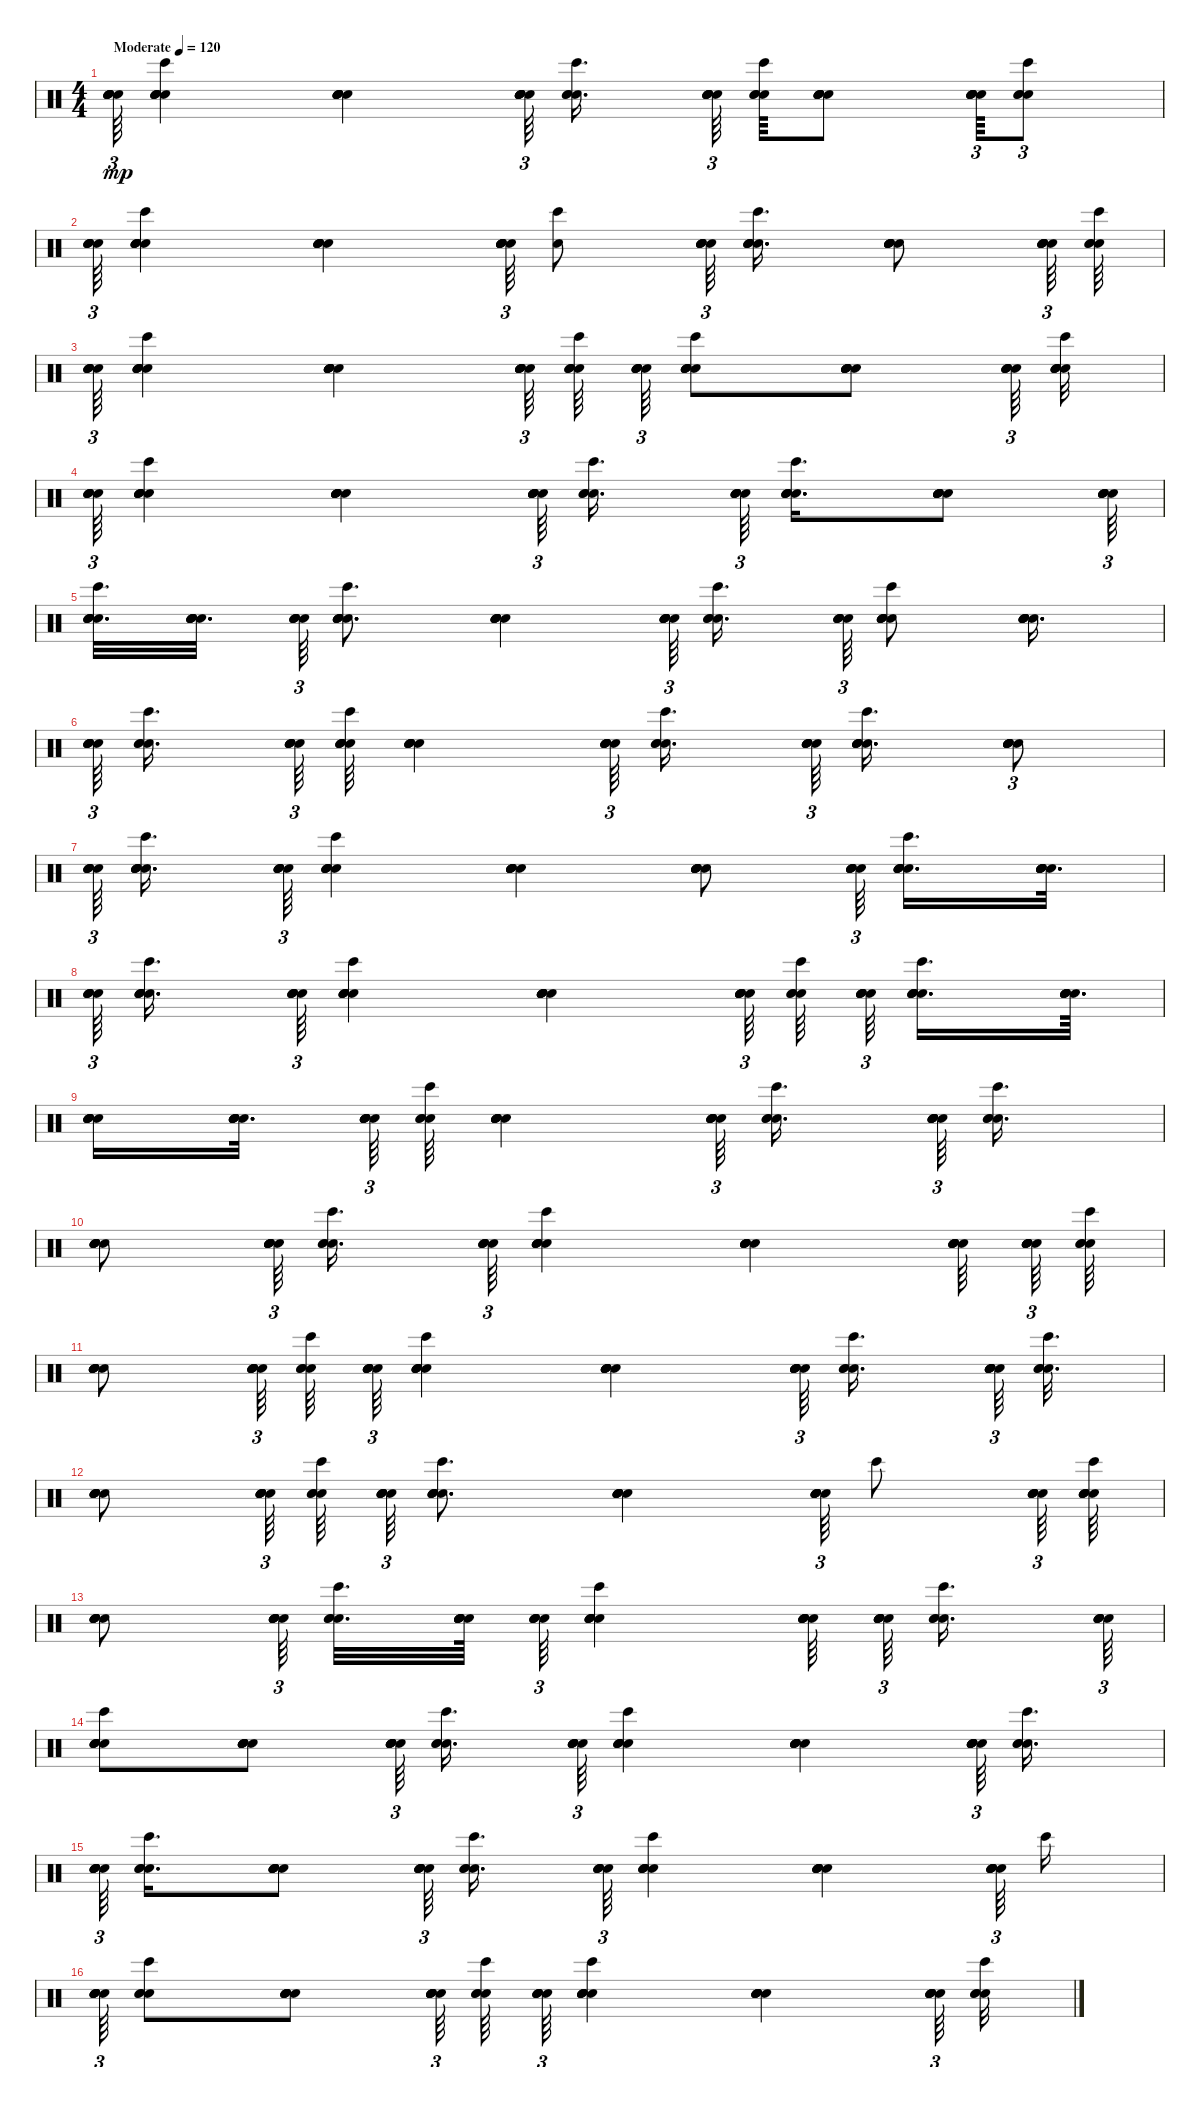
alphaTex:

\track "" {instrument percussion}
\staff {score}
\articulation defaults
\ts (4 4)
\tempo (120 "Moderate")
\clef neutral
\ks c
("Snare (hit)" "Snare (hit)" "Snare (hit)" "Snare (hit)" "Snare (hit)" "Snare (hit)").64{tu (3 2) dy mp} ("Snare (hit)" "Snare (hit)" "Snare (hit)" "Snare (hit)" "Snare (hit)" "Bongo High (hit)").4 ("Snare (hit)" "Snare (hit)" "Snare (hit)" "Snare (hit)" "Snare (hit)" "Snare (hit)").4 ("Snare (hit)" "Snare (hit)" "Snare (hit)" "Snare (hit)" "Snare (hit)" "Snare (hit)").64{tu (3 2)} ("Snare (hit)" "Bongo High (hit)" "Snare (hit)" "Snare (hit)").16{d} ("Snare (hit)" "Snare (hit)" "Snare (hit)" "Snare (hit)" "Snare (hit)" "Snare (hit)").64{tu (3 2)} ("Snare (hit)" "Snare (hit)" "Bongo High (hit)" "Snare (hit)").64 ("Snare (hit)" "Snare (hit)" "Snare (hit)" "Snare (hit)" "Snare (hit)" "Snare (hit)").8 ("Snare (hit)" "Snare (hit)" "Snare (hit)" "Snare (hit)" "Snare (hit)" "Snare (hit)").64{tu (3 2)} ("Snare (hit)" "Snare (hit)" "Snare (hit)" "Bongo High (hit)").8{tu (3 2)} |
("Snare (hit)" "Snare (hit)" "Snare (hit)" "Snare (hit)" "Snare (hit)").64{tu (3 2)} ("Snare (hit)" "Snare (hit)" "Snare (hit)" "Snare (hit)" "Snare (hit)" "Bongo High (hit)").4 ("Snare (hit)" "Snare (hit)" "Snare (hit)" "Snare (hit)" "Snare (hit)" "Snare (hit)").4 ("Snare (hit)" "Snare (hit)" "Snare (hit)" "Snare (hit)" "Snare (hit)" "Snare (hit)").64{tu (3 2)} ("Bongo High (hit)" "Snare (hit)").8 ("Snare (hit)" "Snare (hit)" "Snare (hit)" "Snare (hit)" "Snare (hit)").64{tu (3 2)} ("Snare (hit)" "Snare (hit)" "Snare (hit)" "Snare (hit)" "Bongo High (hit)" "Snare (hit)").16{d} ("Snare (hit)" "Snare (hit)" "Snare (hit)" "Snare (hit)" "Snare (hit)" "Snare (hit)").8 ("Snare (hit)" "Snare (hit)" "Snare (hit)" "Snare (hit)" "Snare (hit)" "Snare (hit)").64{tu (3 2)} ("Snare (hit)" "Snare (hit)" "Bongo High (hit)" "Snare (hit)").64 |
("Snare (hit)" "Snare (hit)" "Snare (hit)" "Snare (hit)" "Snare (hit)").64{tu (3 2)} ("Snare (hit)" "Snare (hit)" "Snare (hit)" "Snare (hit)" "Bongo High (hit)" "Snare (hit)").4 ("Snare (hit)" "Snare (hit)" "Snare (hit)" "Snare (hit)" "Snare (hit)" "Snare (hit)").4 ("Snare (hit)" "Snare (hit)" "Snare (hit)" "Snare (hit)" "Snare (hit)" "Snare (hit)").64{tu (3 2)} ("Snare (hit)" "Snare (hit)" "Snare (hit)" "Bongo High (hit)" "Snare (hit)").64 ("Snare (hit)" "Snare (hit)" "Snare (hit)" "Snare (hit)" "Snare (hit)").64{tu (3 2)} ("Snare (hit)" "Snare (hit)" "Snare (hit)" "Snare (hit)" "Bongo High (hit)" "Snare (hit)").8 ("Snare (hit)" "Snare (hit)" "Snare (hit)" "Snare (hit)" "Snare (hit)" "Snare (hit)").8 ("Snare (hit)" "Snare (hit)" "Snare (hit)" "Snare (hit)" "Snare (hit)").64{tu (3 2)} ("Snare (hit)" "Snare (hit)" "Snare (hit)" "Snare (hit)" "Snare (hit)" "Bongo High (hit)").32 |
("Snare (hit)" "Snare (hit)" "Snare (hit)" "Snare (hit)" "Snare (hit)").64{tu (3 2)} ("Snare (hit)" "Snare (hit)" "Snare (hit)" "Snare (hit)" "Bongo High (hit)" "Snare (hit)").4 ("Snare (hit)" "Snare (hit)" "Snare (hit)" "Snare (hit)" "Snare (hit)" "Snare (hit)").4 ("Snare (hit)" "Snare (hit)" "Snare (hit)" "Snare (hit)" "Snare (hit)" "Snare (hit)").64{tu (3 2)} ("Snare (hit)" "Bongo High (hit)" "Snare (hit)" "Snare (hit)").16{d} ("Snare (hit)" "Snare (hit)" "Snare (hit)" "Snare (hit)" "Snare (hit)").64{tu (3 2)} ("Snare (hit)" "Snare (hit)" "Snare (hit)" "Snare (hit)" "Snare (hit)" "Bongo High (hit)").16{d} ("Snare (hit)" "Snare (hit)" "Snare (hit)" "Snare (hit)" "Snare (hit)" "Snare (hit)").8 ("Snare (hit)" "Snare (hit)" "Snare (hit)" "Snare (hit)" "Snare (hit)").64{tu (3 2)} |
("Snare (hit)" "Snare (hit)" "Snare (hit)" "Snare (hit)" "Bongo High (hit)" "Snare (hit)").32{d} ("Snare (hit)" "Snare (hit)" "Snare (hit)" "Snare (hit)" "Snare (hit)" "Snare (hit)").32{d} ("Snare (hit)" "Snare (hit)" "Snare (hit)" "Snare (hit)" "Snare (hit)").64{tu (3 2)} ("Snare (hit)" "Snare (hit)" "Snare (hit)" "Snare (hit)" "Snare (hit)" "Bongo High (hit)").8{d} ("Snare (hit)" "Snare (hit)" "Snare (hit)" "Snare (hit)" "Snare (hit)" "Snare (hit)").4 ("Snare (hit)" "Snare (hit)" "Snare (hit)" "Snare (hit)" "Snare (hit)" "Snare (hit)").64{tu (3 2)} ("Snare (hit)" "Snare (hit)" "Snare (hit)" "Bongo High (hit)").16{d} ("Snare (hit)" "Snare (hit)" "Snare (hit)" "Snare (hit)" "Snare (hit)").64{tu (3 2)} ("Snare (hit)" "Snare (hit)" "Snare (hit)" "Snare (hit)" "Snare (hit)" "Bongo High (hit)").8 ("Snare (hit)" "Snare (hit)" "Snare (hit)" "Snare (hit)" "Snare (hit)" "Snare (hit)").16{d} |
("Snare (hit)" "Snare (hit)" "Snare (hit)" "Snare (hit)" "Snare (hit)" "Snare (hit)").64{tu (3 2)} ("Snare (hit)" "Snare (hit)" "Bongo High (hit)" "Snare (hit)").16{d} ("Snare (hit)" "Snare (hit)" "Snare (hit)" "Snare (hit)" "Snare (hit)").64{tu (3 2)} ("Snare (hit)" "Snare (hit)" "Snare (hit)" "Snare (hit)" "Bongo High (hit)" "Snare (hit)").64 ("Snare (hit)" "Snare (hit)" "Snare (hit)" "Snare (hit)" "Snare (hit)" "Snare (hit)").4 ("Snare (hit)" "Snare (hit)" "Snare (hit)" "Snare (hit)" "Snare (hit)" "Snare (hit)").64{tu (3 2)} ("Snare (hit)" "Snare (hit)" "Snare (hit)" "Bongo High (hit)").16{d} ("Snare (hit)" "Snare (hit)" "Snare (hit)" "Snare (hit)" "Snare (hit)").64{tu (3 2)} ("Snare (hit)" "Snare (hit)" "Snare (hit)" "Bongo High (hit)" "Snare (hit)" "Snare (hit)").16{d} ("Snare (hit)" "Snare (hit)" "Snare (hit)" "Snare (hit)" "Snare (hit)" "Snare (hit)").8{tu (3 2)} |
("Snare (hit)" "Snare (hit)" "Snare (hit)" "Snare (hit)" "Snare (hit)").64{tu (3 2)} ("Snare (hit)" "Snare (hit)" "Snare (hit)" "Snare (hit)" "Bongo High (hit)" "Snare (hit)").16{d} ("Snare (hit)" "Snare (hit)" "Snare (hit)" "Snare (hit)" "Snare (hit)").64{tu (3 2)} ("Snare (hit)" "Snare (hit)" "Snare (hit)" "Snare (hit)" "Snare (hit)" "Bongo High (hit)").4 ("Snare (hit)" "Snare (hit)" "Snare (hit)" "Snare (hit)" "Snare (hit)" "Snare (hit)").4 ("Snare (hit)" "Snare (hit)" "Snare (hit)" "Snare (hit)" "Snare (hit)" "Snare (hit)").8 ("Snare (hit)" "Snare (hit)" "Snare (hit)" "Snare (hit)" "Snare (hit)").64{tu (3 2)} ("Snare (hit)" "Snare (hit)" "Snare (hit)" "Snare (hit)" "Snare (hit)" "Bongo High (hit)").16{d} ("Snare (hit)" "Snare (hit)" "Snare (hit)" "Snare (hit)" "Snare (hit)" "Snare (hit)").32{d} |
("Snare (hit)" "Snare (hit)" "Snare (hit)" "Snare (hit)" "Snare (hit)").64{tu (3 2)} ("Snare (hit)" "Snare (hit)" "Snare (hit)" "Bongo High (hit)" "Snare (hit)" "Snare (hit)").16{d} ("Snare (hit)" "Snare (hit)" "Snare (hit)" "Snare (hit)" "Snare (hit)").64{tu (3 2)} ("Snare (hit)" "Snare (hit)" "Snare (hit)" "Snare (hit)" "Bongo High (hit)" "Snare (hit)").4 ("Snare (hit)" "Snare (hit)" "Snare (hit)" "Snare (hit)" "Snare (hit)" "Snare (hit)").4 ("Snare (hit)" "Snare (hit)" "Snare (hit)" "Snare (hit)" "Snare (hit)" "Snare (hit)").64{tu (3 2)} ("Snare (hit)" "Snare (hit)" "Bongo High (hit)" "Snare (hit)").64 ("Snare (hit)" "Snare (hit)" "Snare (hit)" "Snare (hit)" "Snare (hit)").64{tu (3 2)} ("Snare (hit)" "Snare (hit)" "Snare (hit)" "Bongo High (hit)" "Snare (hit)" "Snare (hit)").16{d} ("Snare (hit)" "Snare (hit)" "Snare (hit)" "Snare (hit)" "Snare (hit)" "Snare (hit)").64{d} |
("Snare (hit)" "Snare (hit)" "Snare (hit)" "Snare (hit)" "Snare (hit)" "Snare (hit)").16 ("Snare (hit)" "Snare (hit)" "Snare (hit)" "Snare (hit)" "Snare (hit)" "Snare (hit)").32{d} ("Snare (hit)" "Snare (hit)" "Snare (hit)" "Snare (hit)" "Snare (hit)" "Snare (hit)").64{tu (3 2)} ("Snare (hit)" "Bongo High (hit)" "Snare (hit)" "Snare (hit)").64 ("Snare (hit)" "Snare (hit)" "Snare (hit)" "Snare (hit)" "Snare (hit)" "Snare (hit)").4 ("Snare (hit)" "Snare (hit)" "Snare (hit)" "Snare (hit)" "Snare (hit)" "Snare (hit)").64{tu (3 2)} ("Snare (hit)" "Snare (hit)" "Snare (hit)" "Bongo High (hit)").16{d} ("Snare (hit)" "Snare (hit)" "Snare (hit)" "Snare (hit)" "Snare (hit)" "Snare (hit)").64{tu (3 2)} ("Snare (hit)" "Snare (hit)" "Bongo High (hit)" "Snare (hit)").16{d} |
("Snare (hit)" "Snare (hit)" "Snare (hit)" "Snare (hit)" "Snare (hit)" "Snare (hit)").8 ("Snare (hit)" "Snare (hit)" "Snare (hit)" "Snare (hit)" "Snare (hit)" "Snare (hit)").64{tu (3 2)} ("Snare (hit)" "Snare (hit)" "Snare (hit)" "Bongo High (hit)").16{d} ("Snare (hit)" "Snare (hit)" "Snare (hit)" "Snare (hit)" "Snare (hit)").64{tu (3 2)} ("Snare (hit)" "Snare (hit)" "Snare (hit)" "Snare (hit)" "Bongo High (hit)" "Snare (hit)").4 ("Snare (hit)" "Snare (hit)" "Snare (hit)" "Snare (hit)" "Snare (hit)" "Snare (hit)").4 ("Snare (hit)" "Snare (hit)" "Snare (hit)" "Snare (hit)" "Snare (hit)" "Snare (hit)").64 ("Snare (hit)" "Snare (hit)" "Snare (hit)" "Snare (hit)" "Snare (hit)" "Snare (hit)").64{tu (3 2)} ("Snare (hit)" "Snare (hit)" "Snare (hit)" "Bongo High (hit)").64 |
("Snare (hit)" "Snare (hit)" "Snare (hit)" "Snare (hit)" "Snare (hit)" "Snare (hit)").8 ("Snare (hit)" "Snare (hit)" "Snare (hit)" "Snare (hit)" "Snare (hit)" "Snare (hit)").64{tu (3 2)} ("Snare (hit)" "Snare (hit)" "Bongo High (hit)" "Snare (hit)").64 ("Snare (hit)" "Snare (hit)" "Snare (hit)" "Snare (hit)" "Snare (hit)").64{tu (3 2)} ("Snare (hit)" "Snare (hit)" "Snare (hit)" "Snare (hit)" "Snare (hit)" "Bongo High (hit)").4 ("Snare (hit)" "Snare (hit)" "Snare (hit)" "Snare (hit)" "Snare (hit)" "Snare (hit)").4 ("Snare (hit)" "Snare (hit)" "Snare (hit)" "Snare (hit)" "Snare (hit)" "Snare (hit)").64{tu (3 2)} ("Snare (hit)" "Bongo High (hit)" "Snare (hit)" "Snare (hit)").16{d} ("Snare (hit)" "Snare (hit)" "Snare (hit)" "Snare (hit)" "Snare (hit)" "Snare (hit)").64{tu (3 2)} ("Snare (hit)" "Snare (hit)" "Bongo High (hit)" "Snare (hit)").32{d} |
("Snare (hit)" "Snare (hit)" "Snare (hit)" "Snare (hit)" "Snare (hit)" "Snare (hit)").8 ("Snare (hit)" "Snare (hit)" "Snare (hit)" "Snare (hit)" "Snare (hit)" "Snare (hit)").64{tu (3 2)} ("Snare (hit)" "Snare (hit)" "Bongo High (hit)" "Snare (hit)").64 ("Snare (hit)" "Snare (hit)" "Snare (hit)" "Snare (hit)" "Snare (hit)").64{tu (3 2)} ("Snare (hit)" "Snare (hit)" "Snare (hit)" "Snare (hit)" "Snare (hit)" "Bongo High (hit)").8{d} ("Snare (hit)" "Snare (hit)" "Snare (hit)" "Snare (hit)" "Snare (hit)" "Snare (hit)").4 ("Snare (hit)" "Snare (hit)" "Snare (hit)" "Snare (hit)" "Snare (hit)" "Snare (hit)").64{tu (3 2)} "Bongo High (hit)".8 ("Snare (hit)" "Snare (hit)" "Snare (hit)" "Snare (hit)" "Snare (hit)").64{tu (3 2)} ("Snare (hit)" "Snare (hit)" "Snare (hit)" "Snare (hit)" "Bongo High (hit)" "Snare (hit)").64 |
("Snare (hit)" "Snare (hit)" "Snare (hit)" "Snare (hit)" "Snare (hit)" "Snare (hit)").8 ("Snare (hit)" "Snare (hit)" "Snare (hit)" "Snare (hit)" "Snare (hit)" "Snare (hit)").64{tu (3 2)} ("Snare (hit)" "Snare (hit)" "Bongo High (hit)" "Snare (hit)").32{d} ("Snare (hit)" "Snare (hit)" "Snare (hit)" "Snare (hit)" "Snare (hit)" "Snare (hit)").64 ("Snare (hit)" "Snare (hit)" "Snare (hit)" "Snare (hit)" "Snare (hit)").64{tu (3 2)} ("Snare (hit)" "Snare (hit)" "Snare (hit)" "Snare (hit)" "Bongo High (hit)" "Snare (hit)").4 ("Snare (hit)" "Snare (hit)" "Snare (hit)" "Snare (hit)" "Snare (hit)" "Snare (hit)").64 ("Snare (hit)" "Snare (hit)" "Snare (hit)" "Snare (hit)" "Snare (hit)" "Snare (hit)").64{tu (3 2)} ("Snare (hit)" "Snare (hit)" "Snare (hit)" "Bongo High (hit)").16{d} ("Snare (hit)" "Snare (hit)" "Snare (hit)" "Snare (hit)" "Snare (hit)").64{tu (3 2)} |
("Snare (hit)" "Snare (hit)" "Snare (hit)" "Bongo High (hit)" "Snare (hit)" "Snare (hit)").8 ("Snare (hit)" "Snare (hit)" "Snare (hit)" "Snare (hit)" "Snare (hit)" "Snare (hit)").8 ("Snare (hit)" "Snare (hit)" "Snare (hit)" "Snare (hit)" "Snare (hit)" "Snare (hit)").64{tu (3 2)} ("Snare (hit)" "Snare (hit)" "Snare (hit)" "Bongo High (hit)").16{d} ("Snare (hit)" "Snare (hit)" "Snare (hit)" "Snare (hit)" "Snare (hit)").64{tu (3 2)} ("Snare (hit)" "Snare (hit)" "Snare (hit)" "Snare (hit)" "Snare (hit)" "Bongo High (hit)").4 ("Snare (hit)" "Snare (hit)" "Snare (hit)" "Snare (hit)" "Snare (hit)" "Snare (hit)").4 ("Snare (hit)" "Snare (hit)" "Snare (hit)" "Snare (hit)" "Snare (hit)" "Snare (hit)").64{tu (3 2)} ("Snare (hit)" "Snare (hit)" "Bongo High (hit)" "Snare (hit)").16{d} |
("Snare (hit)" "Snare (hit)" "Snare (hit)" "Snare (hit)" "Snare (hit)" "Snare (hit)").64{tu (3 2)} ("Snare (hit)" "Snare (hit)" "Bongo High (hit)" "Snare (hit)").16{d} ("Snare (hit)" "Snare (hit)" "Snare (hit)" "Snare (hit)" "Snare (hit)" "Snare (hit)").8 ("Snare (hit)" "Snare (hit)" "Snare (hit)" "Snare (hit)" "Snare (hit)" "Snare (hit)").64{tu (3 2)} ("Snare (hit)" "Snare (hit)" "Snare (hit)" "Bongo High (hit)").16{d} ("Snare (hit)" "Snare (hit)" "Snare (hit)" "Snare (hit)" "Snare (hit)").64{tu (3 2)} ("Snare (hit)" "Snare (hit)" "Snare (hit)" "Snare (hit)" "Snare (hit)" "Bongo High (hit)").4 ("Snare (hit)" "Snare (hit)" "Snare (hit)" "Snare (hit)" "Snare (hit)" "Snare (hit)").4 ("Snare (hit)" "Snare (hit)" "Snare (hit)" "Snare (hit)" "Snare (hit)" "Snare (hit)").64{tu (3 2)} "Bongo High (hit)".16 |
("Snare (hit)" "Snare (hit)" "Snare (hit)" "Snare (hit)" "Snare (hit)" "Snare (hit)").64{tu (3 2)} ("Snare (hit)" "Snare (hit)" "Bongo High (hit)" "Snare (hit)").8 ("Snare (hit)" "Snare (hit)" "Snare (hit)" "Snare (hit)" "Snare (hit)" "Snare (hit)").8 ("Snare (hit)" "Snare (hit)" "Snare (hit)" "Snare (hit)" "Snare (hit)" "Snare (hit)").64{tu (3 2)} ("Snare (hit)" "Snare (hit)" "Bongo High (hit)" "Snare (hit)").64 ("Snare (hit)" "Snare (hit)" "Snare (hit)" "Snare (hit)" "Snare (hit)").64{tu (3 2)} ("Snare (hit)" "Snare (hit)" "Snare (hit)" "Snare (hit)" "Snare (hit)" "Bongo High (hit)").4 ("Snare (hit)" "Snare (hit)" "Snare (hit)" "Snare (hit)" "Snare (hit)" "Snare (hit)").4 ("Snare (hit)" "Snare (hit)" "Snare (hit)" "Snare (hit)" "Snare (hit)" "Snare (hit)").64{tu (3 2)} ("Snare (hit)" "Snare (hit)" "Snare (hit)" "Bongo High (hit)").32
